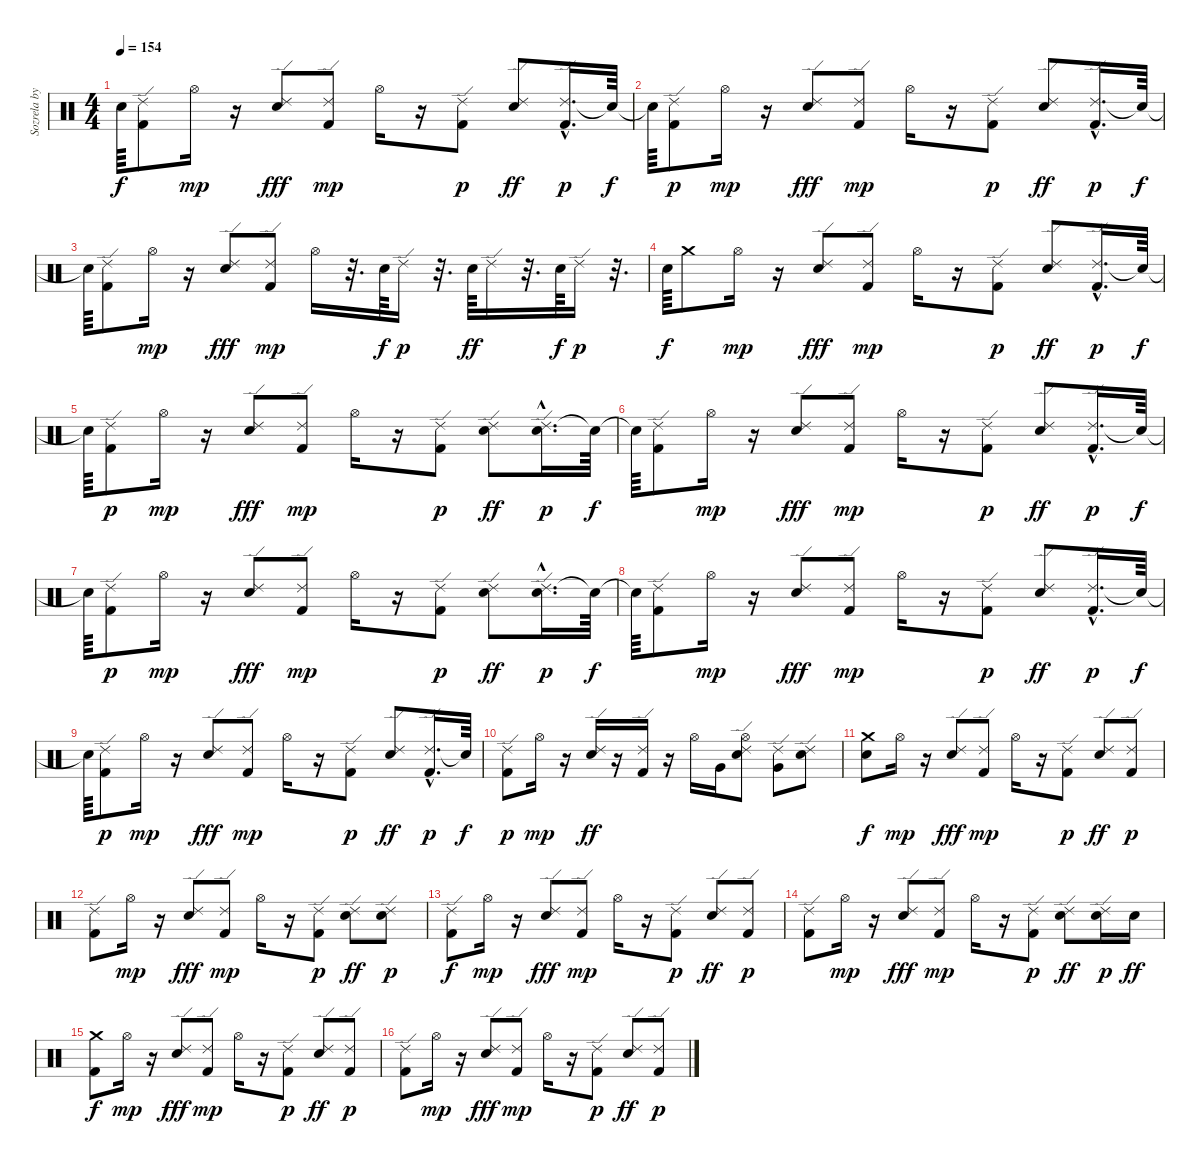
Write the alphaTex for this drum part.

\track ("Sozrela by Anton" "Sozrela by") {instrument percussion}
\staff {score}
\articulation defaults
\ts (4 4)
\tempo 154
\clef neutral
\ks c "Snare (hit)"{t}.64{dy f}
("Kick (hit) 2" "Ride (edge) 2").8 "Hi-Hat (open)".16{dy mp} r.16 ("Ride (edge) 2" "Snare (hit) 2").8{dy fff} ("Ride (edge) 2" "Kick (hit) 2").8{dy mp} "Hi-Hat (open)".16 r.16 ("Ride (edge) 2" "Kick (hit) 2").8{dy p} ("Ride (edge) 2" "Snare (hit) 2").8{dy ff} ("Ride (edge) 2" "Kick (hit) 2"{hac}).16{d dy p} "Snare (hit)"{t}.64{dy f} |
"Snare (hit)"{t}.64 ("Kick (hit) 2" "Ride (edge) 2").8{dy p} "Hi-Hat (open)".16{dy mp} r.16 ("Ride (edge) 2" "Snare (hit) 2").8{dy fff} ("Ride (edge) 2" "Kick (hit) 2").8{dy mp} "Hi-Hat (open)".16 r.16 ("Ride (edge) 2" "Kick (hit) 2").8{dy p} ("Ride (edge) 2" "Snare (hit) 2").8{dy ff} ("Ride (edge) 2" "Kick (hit) 2"{hac}).16{d dy p} "Snare (hit)"{t}.64{dy f} |
"Snare (hit)"{t}.64 ("Kick (hit) 2" "Ride (edge) 2").8 "Hi-Hat (open)".16{dy mp} r.16 ("Ride (edge) 2" "Snare (hit) 2").8{dy fff} ("Ride (edge) 2" "Kick (hit) 2").8{dy mp} "Hi-Hat (open)".16 r.32{d} "Electric Snare (hit)".64{dy f} "Ride (edge) 2".16{dy p} r.32{d} "Electric Snare (hit)".64{dy ff} "Ride (edge) 2".16 r.32{d} "Electric Snare (hit)".64{dy f} "Ride (edge) 2".16{dy p} r.32{d} |
"Snare (hit) 2".64{dy f} "Crash medium (hit)".8 "Hi-Hat (open)".16{dy mp} r.16 ("Ride (edge) 2" "Snare (hit) 2").8{dy fff} ("Ride (edge) 2" "Kick (hit) 2").8{dy mp} "Hi-Hat (open)".16 r.16 ("Ride (edge) 2" "Kick (hit) 2").8{dy p} ("Ride (edge) 2" "Snare (hit) 2").8{dy ff} ("Ride (edge) 2" "Kick (hit) 2"{hac}).16{d dy p} "Snare (hit)"{t}.64{dy f} |
"Snare (hit)"{t}.64 ("Kick (hit) 2" "Ride (edge) 2").8{dy p} "Hi-Hat (open)".16{dy mp} r.16 ("Ride (edge) 2" "Snare (hit) 2").8{dy fff} ("Ride (edge) 2" "Kick (hit) 2").8{dy mp} "Hi-Hat (open)".16 r.16 ("Ride (edge) 2" "Kick (hit) 2").8{dy p} ("Ride (edge) 2" "Snare (hit) 2").8{dy ff} ("Ride (edge) 2" "Snare (hit) 2"{hac}).16{d dy p} "Snare (hit)"{t}.64{dy f} |
"Snare (hit)"{t}.64 ("Kick (hit) 2" "Ride (edge) 2").8 "Hi-Hat (open)".16{dy mp} r.16 ("Ride (edge) 2" "Snare (hit) 2").8{dy fff} ("Ride (edge) 2" "Kick (hit) 2").8{dy mp} "Hi-Hat (open)".16 r.16 ("Ride (edge) 2" "Kick (hit) 2").8{dy p} ("Ride (edge) 2" "Snare (hit) 2").8{dy ff} ("Ride (edge) 2" "Kick (hit) 2"{hac}).16{d dy p} "Snare (hit)"{t}.64{dy f} |
"Snare (hit)"{t}.64 ("Kick (hit) 2" "Ride (edge) 2").8{dy p} "Hi-Hat (open)".16{dy mp} r.16 ("Ride (edge) 2" "Snare (hit) 2").8{dy fff} ("Ride (edge) 2" "Kick (hit) 2").8{dy mp} "Hi-Hat (open)".16 r.16 ("Ride (edge) 2" "Kick (hit) 2").8{dy p} ("Ride (edge) 2" "Snare (hit) 2").8{dy ff} ("Ride (edge) 2" "Snare (hit) 2"{hac}).16{d dy p} "Snare (hit)"{t}.64{dy f} |
"Snare (hit)"{t}.64 ("Kick (hit) 2" "Ride (edge) 2").8 "Hi-Hat (open)".16{dy mp} r.16 ("Ride (edge) 2" "Snare (hit) 2").8{dy fff} ("Ride (edge) 2" "Kick (hit) 2").8{dy mp} "Hi-Hat (open)".16 r.16 ("Ride (edge) 2" "Kick (hit) 2").8{dy p} ("Ride (edge) 2" "Snare (hit) 2").8{dy ff} ("Ride (edge) 2" "Kick (hit) 2"{hac}).16{d dy p} "Snare (hit)"{t}.64{dy f} |
"Snare (hit)"{t}.64 ("Kick (hit) 2" "Ride (edge) 2").8{dy p} "Hi-Hat (open)".16{dy mp} r.16 ("Ride (edge) 2" "Snare (hit) 2").8{dy fff} ("Ride (edge) 2" "Kick (hit) 2").8{dy mp} "Hi-Hat (open)".16 r.16 ("Ride (edge) 2" "Kick (hit) 2").8{dy p} ("Ride (edge) 2" "Snare (hit) 2").8{dy ff} ("Ride (edge) 2" "Kick (hit) 2"{hac}).16{d dy p} "Snare (hit)"{t}.64{dy f} |
("Kick (hit) 2" "Ride (edge) 2").8{dy p} "Hi-Hat (open)".16{dy mp} r.16 ("Snare (hit) 2" "Ride (edge) 2").16{dy ff} r.16 ("Kick (hit) 2" "Ride (edge) 2").16 r.16 "Hi-Hat (open)".16 "Very Low Tom (hit)".16 ("Hi-Hat (open)" "Ride (edge) 2" "Electric Snare (hit)").8 ("Ride (edge) 2" "Very Low Tom (hit)").8 ("Ride (edge) 2" "Electric Snare (hit)").8 |
("Electric Snare (hit)" "Crash medium (hit)").8{dy f} "Hi-Hat (open)".16{dy mp} r.16 ("Ride (edge) 2" "Snare (hit) 2").8{dy fff} ("Ride (edge) 2" "Kick (hit) 2").8{dy mp} "Hi-Hat (open)".16 r.16 ("Ride (edge) 2" "Kick (hit) 2").8{dy p} ("Ride (edge) 2" "Snare (hit) 2").8{dy ff} ("Ride (edge) 2" "Kick (hit) 2").8{dy p} |
("Kick (hit) 2" "Ride (edge) 2").8 "Hi-Hat (open)".16{dy mp} r.16 ("Ride (edge) 2" "Snare (hit) 2").8{dy fff} ("Ride (edge) 2" "Kick (hit) 2").8{dy mp} "Hi-Hat (open)".16 r.16 ("Ride (edge) 2" "Kick (hit) 2").8{dy p} ("Ride (edge) 2" "Snare (hit) 2").8{dy ff} ("Ride (edge) 2" "Snare (hit) 2").8{dy p} |
("Kick (hit) 2" "Ride (edge) 2").8{dy f} "Hi-Hat (open)".16{dy mp} r.16 ("Ride (edge) 2" "Snare (hit) 2").8{dy fff} ("Ride (edge) 2" "Kick (hit) 2").8{dy mp} "Hi-Hat (open)".16 r.16 ("Ride (edge) 2" "Kick (hit) 2").8{dy p} ("Ride (edge) 2" "Snare (hit) 2").8{dy ff} ("Ride (edge) 2" "Kick (hit) 2").8{dy p} |
("Kick (hit) 2" "Ride (edge) 2").8 "Hi-Hat (open)".16{dy mp} r.16 ("Ride (edge) 2" "Snare (hit) 2").8{dy fff} ("Ride (edge) 2" "Kick (hit) 2").8{dy mp} "Hi-Hat (open)".16 r.16 ("Ride (edge) 2" "Kick (hit) 2").8{dy p} ("Snare (hit) 2" "Ride (edge) 2").8{dy ff} ("Snare (hit) 2" "Ride (edge) 2").16{dy p} "Electric Snare (hit)".16{dy ff} |
("Kick (hit) 2" "Crash medium (hit)").8{dy f} "Hi-Hat (open)".16{dy mp} r.16 ("Ride (edge) 2" "Snare (hit) 2").8{dy fff} ("Ride (edge) 2" "Kick (hit) 2").8{dy mp} "Hi-Hat (open)".16 r.16 ("Ride (edge) 2" "Kick (hit) 2").8{dy p} ("Ride (edge) 2" "Snare (hit) 2").8{dy ff} ("Ride (edge) 2" "Kick (hit) 2").8{dy p} |
("Kick (hit) 2" "Ride (edge) 2").8 "Hi-Hat (open)".16{dy mp} r.16 ("Ride (edge) 2" "Snare (hit) 2").8{dy fff} ("Ride (edge) 2" "Kick (hit) 2").8{dy mp} "Hi-Hat (open)".16 r.16 ("Ride (edge) 2" "Kick (hit) 2").8{dy p} ("Ride (edge) 2" "Snare (hit) 2").8{dy ff} ("Ride (edge) 2" "Kick (hit) 2").8{dy p}
